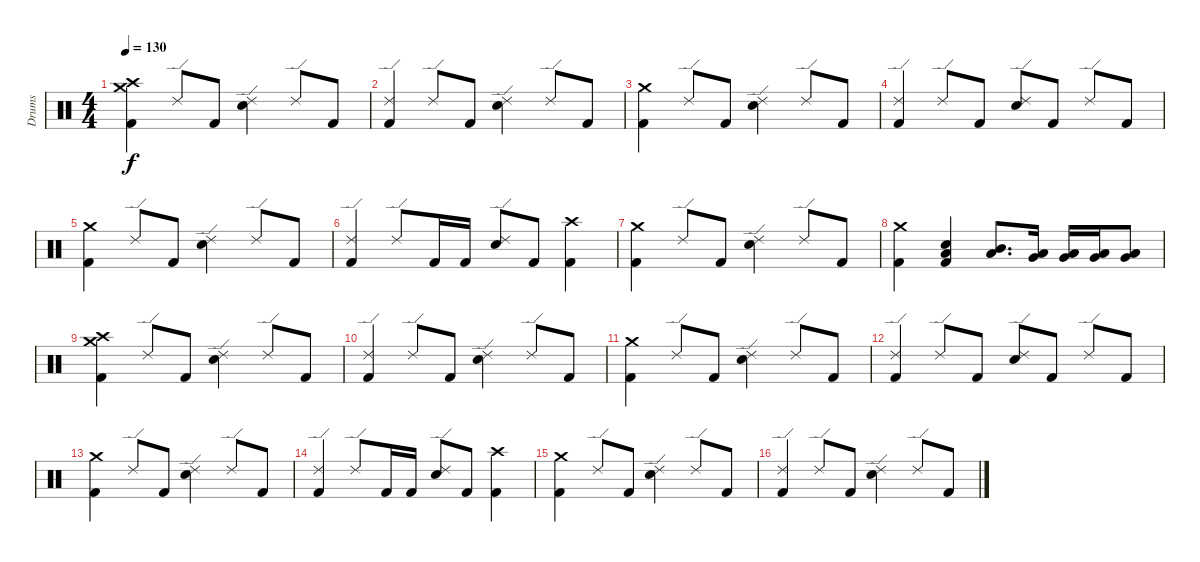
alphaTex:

\track ("Drums" "Drums") {instrument percussion}
\staff {score}
\articulation defaults
\ts (4 4)
\tempo 130
\clef neutral
\ks c
("Crash medium (hit)" "Crash high (hit)" "Kick (hit) 2").4{dy f} "Ride (edge) 2".8 "Kick (hit) 2".8 ("Ride (edge) 2" "Electric Snare (hit)").4 "Ride (edge) 2".8 "Kick (hit) 2".8 |
("Ride (edge) 2" "Kick (hit) 2").4 "Ride (edge) 2".8 "Kick (hit) 2".8 ("Ride (edge) 2" "Electric Snare (hit)").4 "Ride (edge) 2".8 "Kick (hit) 2".8 |
("Crash medium (hit)" "Kick (hit) 2").4 "Ride (edge) 2".8 "Kick (hit) 2".8 ("Ride (edge) 2" "Electric Snare (hit)").4 "Ride (edge) 2".8 "Kick (hit) 2".8 |
("Ride (edge) 2" "Kick (hit) 2").4 "Ride (edge) 2".8 "Kick (hit) 2".8 ("Ride (edge) 2" "Electric Snare (hit)").8 "Kick (hit) 2".8 "Ride (edge) 2".8 "Kick (hit) 2".8 |
("Crash medium (hit)" "Kick (hit) 2").4 "Ride (edge) 2".8 "Kick (hit) 2".8 ("Ride (edge) 2" "Electric Snare (hit)").4 "Ride (edge) 2".8 "Kick (hit) 2".8 |
("Ride (edge) 2" "Kick (hit) 2").4 "Ride (edge) 2".8 "Kick (hit) 2".16 "Kick (hit) 2".16 ("Ride (edge) 2" "Electric Snare (hit)").8 "Kick (hit) 2".8 ("Crash high (hit)" "Kick (hit) 2").4 |
("Crash medium (hit)" "Kick (hit) 2").4 "Ride (edge) 2".8 "Kick (hit) 2".8 ("Ride (edge) 2" "Electric Snare (hit)").4 "Ride (edge) 2".8 "Kick (hit) 2".8 |
("Crash medium (hit)" "Kick (hit) 2").4 ("Low Floor Tom (hit)" "Electric Snare (hit)" "Kick (hit) 2").4 ("Low Tom (hit)" "Mid Tom (hit)").8{d} ("Very Low Tom (hit)" "Low Tom (hit)").16 ("Very Low Tom (hit)" "Low Tom (hit)").16 ("Very Low Tom (hit)" "Low Tom (hit)").16 ("Low Floor Tom (hit)" "Very Low Tom (hit)").8 |
("Crash medium (hit)" "Crash high (hit)" "Kick (hit) 2").4 "Ride (edge) 2".8 "Kick (hit) 2".8 ("Ride (edge) 2" "Electric Snare (hit)").4 "Ride (edge) 2".8 "Kick (hit) 2".8 |
("Ride (edge) 2" "Kick (hit) 2").4 "Ride (edge) 2".8 "Kick (hit) 2".8 ("Ride (edge) 2" "Electric Snare (hit)").4 "Ride (edge) 2".8 "Kick (hit) 2".8 |
("Crash medium (hit)" "Kick (hit) 2").4 "Ride (edge) 2".8 "Kick (hit) 2".8 ("Ride (edge) 2" "Electric Snare (hit)").4 "Ride (edge) 2".8 "Kick (hit) 2".8 |
("Ride (edge) 2" "Kick (hit) 2").4 "Ride (edge) 2".8 "Kick (hit) 2".8 ("Ride (edge) 2" "Electric Snare (hit)").8 "Kick (hit) 2".8 "Ride (edge) 2".8 "Kick (hit) 2".8 |
("Crash medium (hit)" "Kick (hit) 2").4 "Ride (edge) 2".8 "Kick (hit) 2".8 ("Ride (edge) 2" "Electric Snare (hit)").4 "Ride (edge) 2".8 "Kick (hit) 2".8 |
("Ride (edge) 2" "Kick (hit) 2").4 "Ride (edge) 2".8 "Kick (hit) 2".16 "Kick (hit) 2".16 ("Ride (edge) 2" "Electric Snare (hit)").8 "Kick (hit) 2".8 ("Crash high (hit)" "Kick (hit) 2").4 |
("Crash medium (hit)" "Kick (hit) 2").4 "Ride (edge) 2".8 "Kick (hit) 2".8 ("Ride (edge) 2" "Electric Snare (hit)").4 "Ride (edge) 2".8 "Kick (hit) 2".8 |
("Ride (edge) 2" "Kick (hit) 2").4 "Ride (edge) 2".8 "Kick (hit) 2".8 ("Ride (edge) 2" "Electric Snare (hit)").4 "Ride (edge) 2".8 "Kick (hit) 2".8
